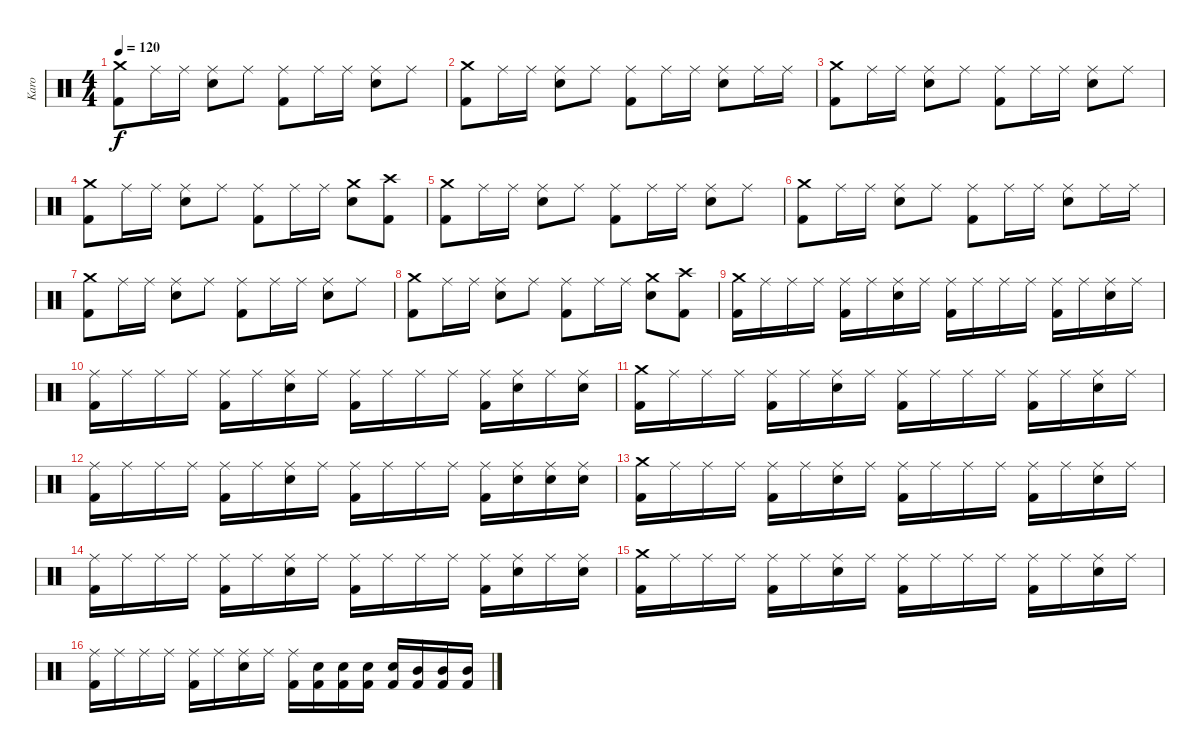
\track ("Karo" "Karo") {instrument percussion}
\staff {score}
\articulation defaults
\ts (4 4)
\tempo 120
\clef neutral
\ks c
("Crash medium (hit)" "Kick (hit) 2").8{dy f} "Ride (middle)".16 "Ride (middle)".16 ("Ride (middle)" "Electric Snare (hit)").8 "Ride (middle)".8 ("Ride (middle)" "Kick (hit) 2").8 "Ride (middle)".16 "Ride (middle)".16 ("Ride (middle)" "Electric Snare (hit)").8 "Ride (middle)".8 |
("Crash medium (hit)" "Kick (hit) 2").8 "Ride (middle)".16 "Ride (middle)".16 ("Ride (middle)" "Electric Snare (hit)").8 "Ride (middle)".8 ("Ride (middle)" "Kick (hit) 2").8 "Ride (middle)".16 "Ride (middle)".16 ("Ride (middle)" "Electric Snare (hit)").8 "Ride (middle)".16 "Ride (middle)".16 |
("Crash medium (hit)" "Kick (hit) 2").8 "Ride (middle)".16 "Ride (middle)".16 ("Ride (middle)" "Electric Snare (hit)").8 "Ride (middle)".8 ("Ride (middle)" "Kick (hit) 2").8 "Ride (middle)".16 "Ride (middle)".16 ("Ride (middle)" "Electric Snare (hit)").8 "Ride (middle)".8 |
("Crash medium (hit)" "Kick (hit) 2").8 "Ride (middle)".16 "Ride (middle)".16 ("Ride (middle)" "Electric Snare (hit)").8 "Ride (middle)".8 ("Ride (middle)" "Kick (hit) 2").8 "Ride (middle)".16 "Ride (middle)".16 ("Crash medium (hit)" "Electric Snare (hit)").8 ("Crash high (hit)" "Kick (hit) 2").8 |
("Crash medium (hit)" "Kick (hit) 2").8 "Ride (middle)".16 "Ride (middle)".16 ("Ride (middle)" "Electric Snare (hit)").8 "Ride (middle)".8 ("Ride (middle)" "Kick (hit) 2").8 "Ride (middle)".16 "Ride (middle)".16 ("Ride (middle)" "Electric Snare (hit)").8 "Ride (middle)".8 |
("Crash medium (hit)" "Kick (hit) 2").8 "Ride (middle)".16 "Ride (middle)".16 ("Ride (middle)" "Electric Snare (hit)").8 "Ride (middle)".8 ("Ride (middle)" "Kick (hit) 2").8 "Ride (middle)".16 "Ride (middle)".16 ("Ride (middle)" "Electric Snare (hit)").8 "Ride (middle)".16 "Ride (middle)".16 |
("Crash medium (hit)" "Kick (hit) 2").8 "Ride (middle)".16 "Ride (middle)".16 ("Ride (middle)" "Electric Snare (hit)").8 "Ride (middle)".8 ("Ride (middle)" "Kick (hit) 2").8 "Ride (middle)".16 "Ride (middle)".16 ("Ride (middle)" "Electric Snare (hit)").8 "Ride (middle)".8 |
("Crash medium (hit)" "Kick (hit) 2").8 "Ride (middle)".16 "Ride (middle)".16 ("Ride (middle)" "Electric Snare (hit)").8 "Ride (middle)".8 ("Ride (middle)" "Kick (hit) 2").8 "Ride (middle)".16 "Ride (middle)".16 ("Crash medium (hit)" "Electric Snare (hit)").8 ("Crash high (hit)" "Kick (hit) 2").8 |
("Crash medium (hit)" "Kick (hit) 2").16 "Ride (middle)".16 "Ride (middle)".16 "Ride (middle)".16 ("Ride (middle)" "Kick (hit) 2").16 "Ride (middle)".16 ("Ride (middle)" "Electric Snare (hit)").16 "Ride (middle)".16 ("Ride (middle)" "Kick (hit) 2").16 "Ride (middle)".16 "Ride (middle)".16 "Ride (middle)".16 ("Ride (middle)" "Kick (hit) 2").16 "Ride (middle)".16 ("Ride (middle)" "Electric Snare (hit)").16 "Ride (middle)".16 |
("Ride (middle)" "Kick (hit) 2").16 "Ride (middle)".16 "Ride (middle)".16 "Ride (middle)".16 ("Ride (middle)" "Kick (hit) 2").16 "Ride (middle)".16 ("Ride (middle)" "Electric Snare (hit)").16 "Ride (middle)".16 ("Ride (middle)" "Kick (hit) 2").16 "Ride (middle)".16 "Ride (middle)".16 "Ride (middle)".16 ("Ride (middle)" "Kick (hit) 2").16 ("Ride (middle)" "Electric Snare (hit)").16 "Ride (middle)".16 ("Ride (middle)" "Electric Snare (hit)").16 |
("Crash medium (hit)" "Kick (hit) 2").16 "Ride (middle)".16 "Ride (middle)".16 "Ride (middle)".16 ("Ride (middle)" "Kick (hit) 2").16 "Ride (middle)".16 ("Ride (middle)" "Electric Snare (hit)").16 "Ride (middle)".16 ("Ride (middle)" "Kick (hit) 2").16 "Ride (middle)".16 "Ride (middle)".16 "Ride (middle)".16 ("Ride (middle)" "Kick (hit) 2").16 "Ride (middle)".16 ("Ride (middle)" "Electric Snare (hit)").16 "Ride (middle)".16 |
("Ride (middle)" "Kick (hit) 2").16 "Ride (middle)".16 "Ride (middle)".16 "Ride (middle)".16 ("Ride (middle)" "Kick (hit) 2").16 "Ride (middle)".16 ("Ride (middle)" "Electric Snare (hit)").16 "Ride (middle)".16 ("Ride (middle)" "Kick (hit) 2").16 "Ride (middle)".16 "Ride (middle)".16 "Ride (middle)".16 ("Ride (middle)" "Kick (hit) 2").16 ("Ride (middle)" "Electric Snare (hit)").16 ("Ride (middle)" "Electric Snare (hit)").16 ("Ride (middle)" "Electric Snare (hit)").16 |
("Crash medium (hit)" "Kick (hit) 2").16 "Ride (middle)".16 "Ride (middle)".16 "Ride (middle)".16 ("Ride (middle)" "Kick (hit) 2").16 "Ride (middle)".16 ("Ride (middle)" "Electric Snare (hit)").16 "Ride (middle)".16 ("Ride (middle)" "Kick (hit) 2").16 "Ride (middle)".16 "Ride (middle)".16 "Ride (middle)".16 ("Ride (middle)" "Kick (hit) 2").16 "Ride (middle)".16 ("Ride (middle)" "Electric Snare (hit)").16 "Ride (middle)".16 |
("Ride (middle)" "Kick (hit) 2").16 "Ride (middle)".16 "Ride (middle)".16 "Ride (middle)".16 ("Ride (middle)" "Kick (hit) 2").16 "Ride (middle)".16 ("Ride (middle)" "Electric Snare (hit)").16 "Ride (middle)".16 ("Ride (middle)" "Kick (hit) 2").16 "Ride (middle)".16 "Ride (middle)".16 "Ride (middle)".16 ("Ride (middle)" "Kick (hit) 2").16 ("Ride (middle)" "Electric Snare (hit)").16 "Ride (middle)".16 ("Ride (middle)" "Electric Snare (hit)").16 |
("Crash medium (hit)" "Kick (hit) 2").16 "Ride (middle)".16 "Ride (middle)".16 "Ride (middle)".16 ("Ride (middle)" "Kick (hit) 2").16 "Ride (middle)".16 ("Ride (middle)" "Electric Snare (hit)").16 "Ride (middle)".16 ("Ride (middle)" "Kick (hit) 2").16 "Ride (middle)".16 "Ride (middle)".16 "Ride (middle)".16 ("Ride (middle)" "Kick (hit) 2").16 "Ride (middle)".16 ("Ride (middle)" "Electric Snare (hit)").16 "Ride (middle)".16 |
("Ride (middle)" "Kick (hit) 2").16 "Ride (middle)".16 "Ride (middle)".16 "Ride (middle)".16 ("Ride (middle)" "Kick (hit) 2").16 "Ride (middle)".16 ("Ride (middle)" "Electric Snare (hit)").16 "Ride (middle)".16 ("Ride (middle)" "Kick (hit) 2").16 ("Electric Snare (hit)" "Kick (hit) 2").16 ("Electric Snare (hit)" "Kick (hit) 2").16 ("Electric Snare (hit)" "Kick (hit) 2").16 ("Electric Snare (hit)" "Kick (hit) 2").16 ("Mid Tom (hit)" "Kick (hit) 2").16 ("Mid Tom (hit)" "Kick (hit) 2").16 ("Mid Tom (hit)" "Kick (hit) 2").16
